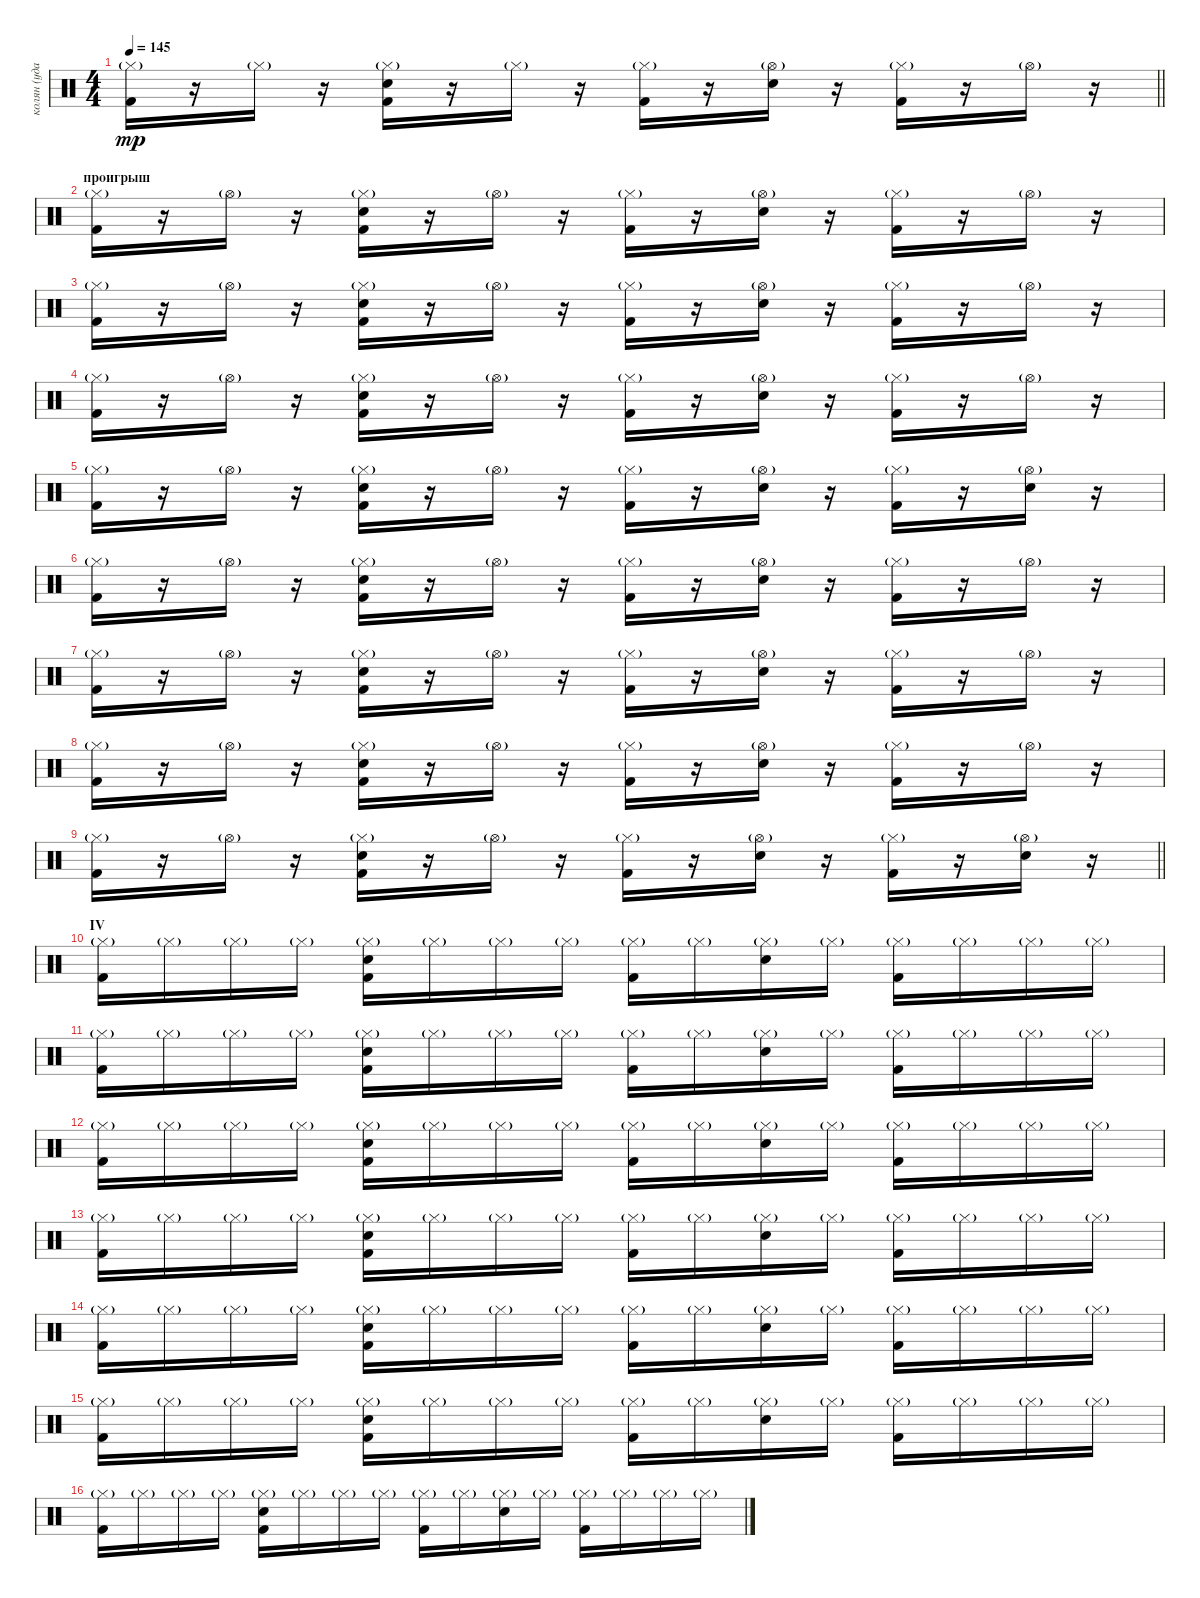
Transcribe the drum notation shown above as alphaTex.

\track ("колян (ударные)" "колян (уда") {instrument percussion}
\staff {score}
\articulation defaults
\ts (4 4)
\tempo 145
\clef neutral
\barLineRight lightlight
\ks c
("Kick (hit) 2" "Hi-Hat (closed)"{g}).16{dy mp} r.16 "Hi-Hat (closed)"{g}.16 r.16 ("Snare (hit) 2" "Kick (hit) 2" "Hi-Hat (closed)"{g}).16 r.16 "Hi-Hat (closed)"{g}.16 r.16 ("Kick (hit) 2" "Hi-Hat (closed)"{g}).16 r.16 ("Snare (hit) 2" "Hi-Hat (open)"{g}).16 r.16 ("Kick (hit) 2" "Hi-Hat (closed)"{g}).16 r.16 "Hi-Hat (open)"{g}.16 r.16 |
\section ("" "проигрыш")
("Kick (hit) 2" "Hi-Hat (closed)"{g}).16 r.16 "Hi-Hat (open)"{g}.16 r.16 ("Snare (hit) 2" "Kick (hit) 2" "Hi-Hat (closed)"{g}).16 r.16 "Hi-Hat (open)"{g}.16 r.16 ("Kick (hit) 2" "Hi-Hat (closed)"{g}).16 r.16 ("Snare (hit) 2" "Hi-Hat (open)"{g}).16 r.16 ("Kick (hit) 2" "Hi-Hat (closed)"{g}).16 r.16 "Hi-Hat (open)"{g}.16 r.16 |
("Kick (hit) 2" "Hi-Hat (closed)"{g}).16 r.16 "Hi-Hat (open)"{g}.16 r.16 ("Snare (hit) 2" "Kick (hit) 2" "Hi-Hat (closed)"{g}).16 r.16 "Hi-Hat (open)"{g}.16 r.16 ("Kick (hit) 2" "Hi-Hat (closed)"{g}).16 r.16 ("Snare (hit) 2" "Hi-Hat (open)"{g}).16 r.16 ("Kick (hit) 2" "Hi-Hat (closed)"{g}).16 r.16 "Hi-Hat (open)"{g}.16 r.16 |
("Kick (hit) 2" "Hi-Hat (closed)"{g}).16 r.16 "Hi-Hat (open)"{g}.16 r.16 ("Snare (hit) 2" "Kick (hit) 2" "Hi-Hat (closed)"{g}).16 r.16 "Hi-Hat (open)"{g}.16 r.16 ("Kick (hit) 2" "Hi-Hat (closed)"{g}).16 r.16 ("Snare (hit) 2" "Hi-Hat (open)"{g}).16 r.16 ("Kick (hit) 2" "Hi-Hat (closed)"{g}).16 r.16 "Hi-Hat (open)"{g}.16 r.16 |
("Kick (hit) 2" "Hi-Hat (closed)"{g}).16 r.16 "Hi-Hat (open)"{g}.16 r.16 ("Snare (hit) 2" "Kick (hit) 2" "Hi-Hat (closed)"{g}).16 r.16 "Hi-Hat (open)"{g}.16 r.16 ("Kick (hit) 2" "Hi-Hat (closed)"{g}).16 r.16 ("Snare (hit) 2" "Hi-Hat (open)"{g}).16 r.16 ("Kick (hit) 2" "Hi-Hat (closed)"{g}).16 r.16 ("Snare (hit) 2" "Hi-Hat (open)"{g}).16 r.16 |
("Kick (hit) 2" "Hi-Hat (closed)"{g}).16 r.16 "Hi-Hat (open)"{g}.16 r.16 ("Snare (hit) 2" "Kick (hit) 2" "Hi-Hat (closed)"{g}).16 r.16 "Hi-Hat (open)"{g}.16 r.16 ("Kick (hit) 2" "Hi-Hat (closed)"{g}).16 r.16 ("Snare (hit) 2" "Hi-Hat (open)"{g}).16 r.16 ("Kick (hit) 2" "Hi-Hat (closed)"{g}).16 r.16 "Hi-Hat (open)"{g}.16 r.16 |
("Kick (hit) 2" "Hi-Hat (closed)"{g}).16 r.16 "Hi-Hat (open)"{g}.16 r.16 ("Snare (hit) 2" "Kick (hit) 2" "Hi-Hat (closed)"{g}).16 r.16 "Hi-Hat (open)"{g}.16 r.16 ("Kick (hit) 2" "Hi-Hat (closed)"{g}).16 r.16 ("Snare (hit) 2" "Hi-Hat (open)"{g}).16 r.16 ("Kick (hit) 2" "Hi-Hat (closed)"{g}).16 r.16 "Hi-Hat (open)"{g}.16 r.16 |
("Kick (hit) 2" "Hi-Hat (closed)"{g}).16 r.16 "Hi-Hat (open)"{g}.16 r.16 ("Snare (hit) 2" "Kick (hit) 2" "Hi-Hat (closed)"{g}).16 r.16 "Hi-Hat (open)"{g}.16 r.16 ("Kick (hit) 2" "Hi-Hat (closed)"{g}).16 r.16 ("Snare (hit) 2" "Hi-Hat (open)"{g}).16 r.16 ("Kick (hit) 2" "Hi-Hat (closed)"{g}).16 r.16 "Hi-Hat (open)"{g}.16 r.16 |
\barLineRight lightlight
("Kick (hit) 2" "Hi-Hat (closed)"{g}).16 r.16 "Hi-Hat (open)"{g}.16 r.16 ("Snare (hit) 2" "Kick (hit) 2" "Hi-Hat (closed)"{g}).16 r.16 "Hi-Hat (open)"{g}.16 r.16 ("Kick (hit) 2" "Hi-Hat (closed)"{g}).16 r.16 ("Snare (hit) 2" "Hi-Hat (open)"{g}).16 r.16 ("Kick (hit) 2" "Hi-Hat (closed)"{g}).16 r.16 ("Snare (hit) 2" "Hi-Hat (open)"{g}).16 r.16 |
\section ("" "IV")
("Kick (hit) 2" "Hi-Hat (closed)"{g}).16 "Hi-Hat (closed)"{g}.16 "Hi-Hat (closed)"{g}.16 "Hi-Hat (closed)"{g}.16 ("Snare (hit) 2" "Kick (hit) 2" "Hi-Hat (closed)"{g}).16 "Hi-Hat (closed)"{g}.16 "Hi-Hat (closed)"{g}.16 "Hi-Hat (closed)"{g}.16 ("Kick (hit) 2" "Hi-Hat (closed)"{g}).16 "Hi-Hat (closed)"{g}.16 ("Snare (hit) 2" "Hi-Hat (closed)"{g}).16 "Hi-Hat (closed)"{g}.16 ("Kick (hit) 2" "Hi-Hat (closed)"{g}).16 "Hi-Hat (closed)"{g}.16 "Hi-Hat (closed)"{g}.16 "Hi-Hat (closed)"{g}.16 |
("Kick (hit) 2" "Hi-Hat (closed)"{g}).16 "Hi-Hat (closed)"{g}.16 "Hi-Hat (closed)"{g}.16 "Hi-Hat (closed)"{g}.16 ("Snare (hit) 2" "Kick (hit) 2" "Hi-Hat (closed)"{g}).16 "Hi-Hat (closed)"{g}.16 "Hi-Hat (closed)"{g}.16 "Hi-Hat (closed)"{g}.16 ("Kick (hit) 2" "Hi-Hat (closed)"{g}).16 "Hi-Hat (closed)"{g}.16 ("Snare (hit) 2" "Hi-Hat (closed)"{g}).16 "Hi-Hat (closed)"{g}.16 ("Kick (hit) 2" "Hi-Hat (closed)"{g}).16 "Hi-Hat (closed)"{g}.16 "Hi-Hat (closed)"{g}.16 "Hi-Hat (closed)"{g}.16 |
("Kick (hit) 2" "Hi-Hat (closed)"{g}).16 "Hi-Hat (closed)"{g}.16 "Hi-Hat (closed)"{g}.16 "Hi-Hat (closed)"{g}.16 ("Snare (hit) 2" "Kick (hit) 2" "Hi-Hat (closed)"{g}).16 "Hi-Hat (closed)"{g}.16 "Hi-Hat (closed)"{g}.16 "Hi-Hat (closed)"{g}.16 ("Kick (hit) 2" "Hi-Hat (closed)"{g}).16 "Hi-Hat (closed)"{g}.16 ("Snare (hit) 2" "Hi-Hat (closed)"{g}).16 "Hi-Hat (closed)"{g}.16 ("Kick (hit) 2" "Hi-Hat (closed)"{g}).16 "Hi-Hat (closed)"{g}.16 "Hi-Hat (closed)"{g}.16 "Hi-Hat (closed)"{g}.16 |
("Kick (hit) 2" "Hi-Hat (closed)"{g}).16 "Hi-Hat (closed)"{g}.16 "Hi-Hat (closed)"{g}.16 "Hi-Hat (closed)"{g}.16 ("Snare (hit) 2" "Kick (hit) 2" "Hi-Hat (closed)"{g}).16 "Hi-Hat (closed)"{g}.16 "Hi-Hat (closed)"{g}.16 "Hi-Hat (closed)"{g}.16 ("Kick (hit) 2" "Hi-Hat (closed)"{g}).16 "Hi-Hat (closed)"{g}.16 ("Snare (hit) 2" "Hi-Hat (closed)"{g}).16 "Hi-Hat (closed)"{g}.16 ("Kick (hit) 2" "Hi-Hat (closed)"{g}).16 "Hi-Hat (closed)"{g}.16 "Hi-Hat (closed)"{g}.16 "Hi-Hat (closed)"{g}.16 |
("Kick (hit) 2" "Hi-Hat (closed)"{g}).16 "Hi-Hat (closed)"{g}.16 "Hi-Hat (closed)"{g}.16 "Hi-Hat (closed)"{g}.16 ("Snare (hit) 2" "Kick (hit) 2" "Hi-Hat (closed)"{g}).16 "Hi-Hat (closed)"{g}.16 "Hi-Hat (closed)"{g}.16 "Hi-Hat (closed)"{g}.16 ("Kick (hit) 2" "Hi-Hat (closed)"{g}).16 "Hi-Hat (closed)"{g}.16 ("Snare (hit) 2" "Hi-Hat (closed)"{g}).16 "Hi-Hat (closed)"{g}.16 ("Kick (hit) 2" "Hi-Hat (closed)"{g}).16 "Hi-Hat (closed)"{g}.16 "Hi-Hat (closed)"{g}.16 "Hi-Hat (closed)"{g}.16 |
("Kick (hit) 2" "Hi-Hat (closed)"{g}).16 "Hi-Hat (closed)"{g}.16 "Hi-Hat (closed)"{g}.16 "Hi-Hat (closed)"{g}.16 ("Snare (hit) 2" "Kick (hit) 2" "Hi-Hat (closed)"{g}).16 "Hi-Hat (closed)"{g}.16 "Hi-Hat (closed)"{g}.16 "Hi-Hat (closed)"{g}.16 ("Kick (hit) 2" "Hi-Hat (closed)"{g}).16 "Hi-Hat (closed)"{g}.16 ("Snare (hit) 2" "Hi-Hat (closed)"{g}).16 "Hi-Hat (closed)"{g}.16 ("Kick (hit) 2" "Hi-Hat (closed)"{g}).16 "Hi-Hat (closed)"{g}.16 "Hi-Hat (closed)"{g}.16 "Hi-Hat (closed)"{g}.16 |
("Kick (hit) 2" "Hi-Hat (closed)"{g}).16 "Hi-Hat (closed)"{g}.16 "Hi-Hat (closed)"{g}.16 "Hi-Hat (closed)"{g}.16 ("Snare (hit) 2" "Kick (hit) 2" "Hi-Hat (closed)"{g}).16 "Hi-Hat (closed)"{g}.16 "Hi-Hat (closed)"{g}.16 "Hi-Hat (closed)"{g}.16 ("Kick (hit) 2" "Hi-Hat (closed)"{g}).16 "Hi-Hat (closed)"{g}.16 ("Snare (hit) 2" "Hi-Hat (closed)"{g}).16 "Hi-Hat (closed)"{g}.16 ("Kick (hit) 2" "Hi-Hat (closed)"{g}).16 "Hi-Hat (closed)"{g}.16 "Hi-Hat (closed)"{g}.16 "Hi-Hat (closed)"{g}.16
